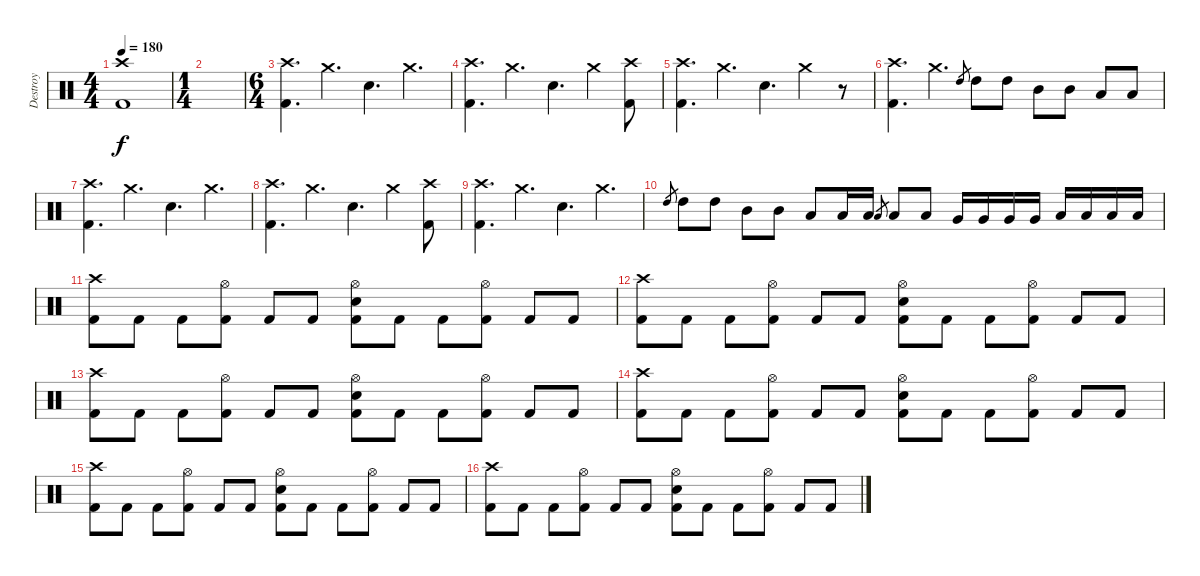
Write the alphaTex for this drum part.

\track ("Destroy" "Destroy") {instrument percussion}
\staff {score}
\articulation defaults
\ts (4 4)
\tempo 180
\clef neutral
\ks c
("Crash high (hit)" "Kick (hit) 2").1{dy f} |
\ts (1 4)
|
\ts (6 4)
("Crash high (hit)" "Kick (hit) 2").4{d} "Crash medium (hit)".4{d} "Electric Snare (hit)".4{d} "Crash medium (hit)".4{d} |
("Crash high (hit)" "Kick (hit) 2").4{d} "Crash medium (hit)".4{d} "Electric Snare (hit)".4{d} "Crash medium (hit)".4 ("Crash high (hit)" "Kick (hit) 2").8 |
("Crash high (hit)" "Kick (hit) 2").4{d} "Crash medium (hit)".4{d} "Electric Snare (hit)".4{d} "Crash medium (hit)".4 r.8 |
("Crash high (hit)" "Kick (hit) 2").4{d} "Crash medium (hit)".4{d} "High Tom (hit)".8{gr} "High Tom (hit)".8 "High Tom (hit)".8 "Mid Tom (hit)".8 "Mid Tom (hit)".8 "Low Tom (hit)".8 "Low Tom (hit)".8 |
("Crash high (hit)" "Kick (hit) 2").4{d} "Crash medium (hit)".4{d} "Electric Snare (hit)".4{d} "Crash medium (hit)".4{d} |
("Crash high (hit)" "Kick (hit) 2").4{d} "Crash medium (hit)".4{d} "Electric Snare (hit)".4{d} "Crash medium (hit)".4 ("Crash high (hit)" "Kick (hit) 2").8 |
("Crash high (hit)" "Kick (hit) 2").4{d} "Crash medium (hit)".4{d} "Electric Snare (hit)".4{d} "Crash medium (hit)".4{d} |
"High Tom (hit)".8{gr} "High Tom (hit)".8 "High Tom (hit)".8 "Mid Tom (hit)".8 "Mid Tom (hit)".8 "Low Tom (hit)".8 "Low Tom (hit)".16 "Low Tom (hit)".16 "Low Tom (hit)".8{gr} "Low Tom (hit)".8 "Low Tom (hit)".8 "Very Low Tom (hit)".16 "Very Low Tom (hit)".16 "Very Low Tom (hit)".16 "Very Low Tom (hit)".16 "Low Floor Tom (hit)".16 "Low Floor Tom (hit)".16 "Low Floor Tom (hit)".16 "Low Floor Tom (hit)".16 |
("Crash high (hit)" "Kick (hit) 2").8 "Kick (hit) 2".8 "Kick (hit) 2".8 ("Hi-Hat (open)" "Kick (hit) 2").8 "Kick (hit) 2".8 "Kick (hit) 2".8 ("Hi-Hat (open)" "Electric Snare (hit)" "Kick (hit) 2").8 "Kick (hit) 2".8 "Kick (hit) 2".8 ("Hi-Hat (open)" "Kick (hit) 2").8 "Kick (hit) 2".8 "Kick (hit) 2".8 |
("Crash high (hit)" "Kick (hit) 2").8 "Kick (hit) 2".8 "Kick (hit) 2".8 ("Hi-Hat (open)" "Kick (hit) 2").8 "Kick (hit) 2".8 "Kick (hit) 2".8 ("Hi-Hat (open)" "Electric Snare (hit)" "Kick (hit) 2").8 "Kick (hit) 2".8 "Kick (hit) 2".8 ("Hi-Hat (open)" "Kick (hit) 2").8 "Kick (hit) 2".8 "Kick (hit) 2".8 |
("Crash high (hit)" "Kick (hit) 2").8 "Kick (hit) 2".8 "Kick (hit) 2".8 ("Hi-Hat (open)" "Kick (hit) 2").8 "Kick (hit) 2".8 "Kick (hit) 2".8 ("Hi-Hat (open)" "Electric Snare (hit)" "Kick (hit) 2").8 "Kick (hit) 2".8 "Kick (hit) 2".8 ("Hi-Hat (open)" "Kick (hit) 2").8 "Kick (hit) 2".8 "Kick (hit) 2".8 |
("Crash high (hit)" "Kick (hit) 2").8 "Kick (hit) 2".8 "Kick (hit) 2".8 ("Hi-Hat (open)" "Kick (hit) 2").8 "Kick (hit) 2".8 "Kick (hit) 2".8 ("Hi-Hat (open)" "Electric Snare (hit)" "Kick (hit) 2").8 "Kick (hit) 2".8 "Kick (hit) 2".8 ("Hi-Hat (open)" "Kick (hit) 2").8 "Kick (hit) 2".8 "Kick (hit) 2".8 |
("Crash high (hit)" "Kick (hit) 2").8 "Kick (hit) 2".8 "Kick (hit) 2".8 ("Hi-Hat (open)" "Kick (hit) 2").8 "Kick (hit) 2".8 "Kick (hit) 2".8 ("Hi-Hat (open)" "Electric Snare (hit)" "Kick (hit) 2").8 "Kick (hit) 2".8 "Kick (hit) 2".8 ("Hi-Hat (open)" "Kick (hit) 2").8 "Kick (hit) 2".8 "Kick (hit) 2".8 |
("Crash high (hit)" "Kick (hit) 2").8 "Kick (hit) 2".8 "Kick (hit) 2".8 ("Hi-Hat (open)" "Kick (hit) 2").8 "Kick (hit) 2".8 "Kick (hit) 2".8 ("Hi-Hat (open)" "Electric Snare (hit)" "Kick (hit) 2").8 "Kick (hit) 2".8 "Kick (hit) 2".8 ("Hi-Hat (open)" "Kick (hit) 2").8 "Kick (hit) 2".8 "Kick (hit) 2".8
